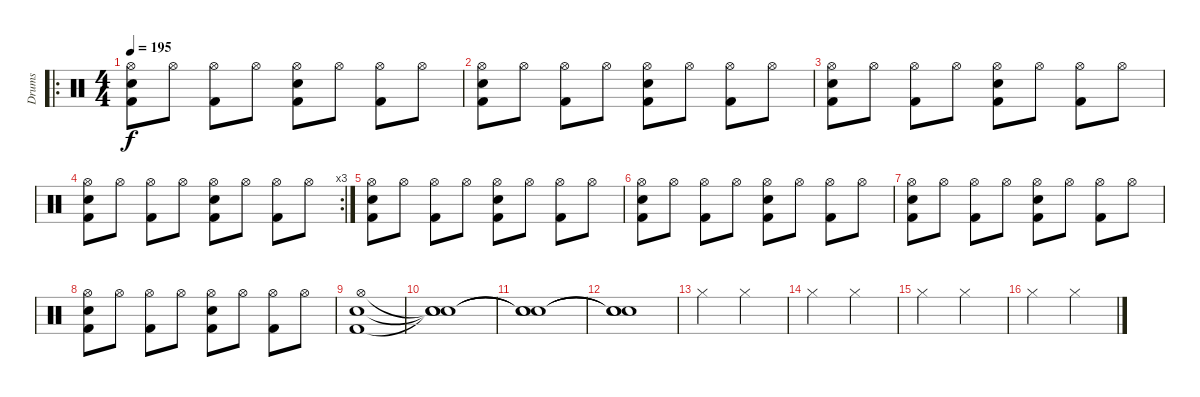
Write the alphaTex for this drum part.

\track ("Drums" "Drums") {instrument percussion}
\staff {score}
\articulation defaults
\ro
\ts (4 4)
\tempo 195
\clef neutral
\ks c
("Electric Snare (hit)" "Hi-Hat (open)" "Kick (hit) 2").8{dy f} "Hi-Hat (open)".8 ("Hi-Hat (open)" "Kick (hit) 2").8 "Hi-Hat (open)".8 ("Electric Snare (hit)" "Hi-Hat (open)" "Kick (hit) 2").8 "Hi-Hat (open)".8 ("Hi-Hat (open)" "Kick (hit) 2").8 "Hi-Hat (open)".8 |
("Electric Snare (hit)" "Hi-Hat (open)" "Kick (hit) 2").8 "Hi-Hat (open)".8 ("Hi-Hat (open)" "Kick (hit) 2").8 "Hi-Hat (open)".8 ("Electric Snare (hit)" "Hi-Hat (open)" "Kick (hit) 2").8 "Hi-Hat (open)".8 ("Hi-Hat (open)" "Kick (hit) 2").8 "Hi-Hat (open)".8 |
("Electric Snare (hit)" "Hi-Hat (open)" "Kick (hit) 2").8 "Hi-Hat (open)".8 ("Hi-Hat (open)" "Kick (hit) 2").8 "Hi-Hat (open)".8 ("Electric Snare (hit)" "Hi-Hat (open)" "Kick (hit) 2").8 "Hi-Hat (open)".8 ("Hi-Hat (open)" "Kick (hit) 2").8 "Hi-Hat (open)".8 |
\rc 3
("Electric Snare (hit)" "Hi-Hat (open)" "Kick (hit) 2").8 "Hi-Hat (open)".8 ("Hi-Hat (open)" "Kick (hit) 2").8 "Hi-Hat (open)".8 ("Electric Snare (hit)" "Hi-Hat (open)" "Kick (hit) 2").8 "Hi-Hat (open)".8 ("Hi-Hat (open)" "Kick (hit) 2").8 "Hi-Hat (open)".8 |
("Electric Snare (hit)" "Hi-Hat (open)" "Kick (hit) 2").8 "Hi-Hat (open)".8 ("Hi-Hat (open)" "Kick (hit) 2").8 "Hi-Hat (open)".8 ("Electric Snare (hit)" "Hi-Hat (open)" "Kick (hit) 2").8 "Hi-Hat (open)".8 ("Hi-Hat (open)" "Kick (hit) 2").8 "Hi-Hat (open)".8 |
("Electric Snare (hit)" "Hi-Hat (open)" "Kick (hit) 2").8 "Hi-Hat (open)".8 ("Hi-Hat (open)" "Kick (hit) 2").8 "Hi-Hat (open)".8 ("Electric Snare (hit)" "Hi-Hat (open)" "Kick (hit) 2").8 "Hi-Hat (open)".8 ("Hi-Hat (open)" "Kick (hit) 2").8 "Hi-Hat (open)".8 |
("Electric Snare (hit)" "Hi-Hat (open)" "Kick (hit) 2").8 "Hi-Hat (open)".8 ("Hi-Hat (open)" "Kick (hit) 2").8 "Hi-Hat (open)".8 ("Electric Snare (hit)" "Hi-Hat (open)" "Kick (hit) 2").8 "Hi-Hat (open)".8 ("Hi-Hat (open)" "Kick (hit) 2").8 "Hi-Hat (open)".8 |
("Electric Snare (hit)" "Hi-Hat (open)" "Kick (hit) 2").8 "Hi-Hat (open)".8 ("Hi-Hat (open)" "Kick (hit) 2").8 "Hi-Hat (open)".8 ("Electric Snare (hit)" "Hi-Hat (open)" "Kick (hit) 2").8 "Hi-Hat (open)".8 ("Hi-Hat (open)" "Kick (hit) 2").8 "Hi-Hat (open)".8 |
("Electric Snare (hit)" "Hi-Hat (open)" "Kick (hit) 2").1 |
("Snare (hit)"{t} "Snare (hit)"{t} "Snare (hit)"{t}).1 |
("Snare (hit)"{t} "Snare (hit)"{t} "Snare (hit)"{t}).1 |
("Snare (hit)"{t} "Snare (hit)"{t} "Snare (hit)"{t}).1 |
"Hi-Hat (closed)".2 "Hi-Hat (closed)".2 |
"Hi-Hat (closed)".2 "Hi-Hat (closed)".2 |
"Hi-Hat (closed)".2 "Hi-Hat (closed)".2 |
"Hi-Hat (closed)".2 "Hi-Hat (closed)".2
